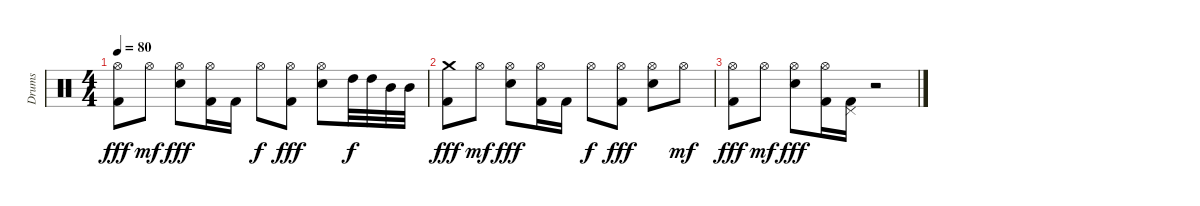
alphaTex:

\track ("Drums" "Drums") {instrument percussion}
\staff {score}
\articulation defaults
\ts (4 4)
\tempo 80
\clef neutral
\ks c
("Hi-Hat (open)" "Kick (hit) 2").8{dy fff} "Hi-Hat (open)".8{dy mf} ("Hi-Hat (open)" "Snare (hit) 2").8{dy fff} ("Hi-Hat (open)" "Kick (hit) 2").16 "Kick (hit) 2".16 "Hi-Hat (open)".8{dy f} ("Hi-Hat (open)" "Kick (hit) 2").8{dy fff} ("Hi-Hat (open)" "Snare (hit) 2").8 "High Tom (hit)".32{dy f} "High Tom (hit)".32 "Mid Tom (hit)".32 "Mid Tom (hit)".32 |
("Crash medium (hit)" "Kick (hit) 2").8{dy fff} "Hi-Hat (open)".8{dy mf} ("Hi-Hat (open)" "Snare (hit) 2").8{dy fff} ("Hi-Hat (open)" "Kick (hit) 2").16 "Kick (hit) 2".16 "Hi-Hat (open)".8{dy f} ("Hi-Hat (open)" "Kick (hit) 2").8{dy fff} ("Hi-Hat (open)" "Snare (hit) 2").8 "Hi-Hat (open)".8{dy mf} |
("Hi-Hat (open)" "Kick (hit) 2").8{dy fff} "Hi-Hat (open)".8{dy mf} ("Hi-Hat (open)" "Snare (hit) 2").8{dy fff} ("Hi-Hat (open)" "Kick (hit) 2").16 ("Pedal Hi-Hat (hit)" "Kick (hit) 2").16 r.2
